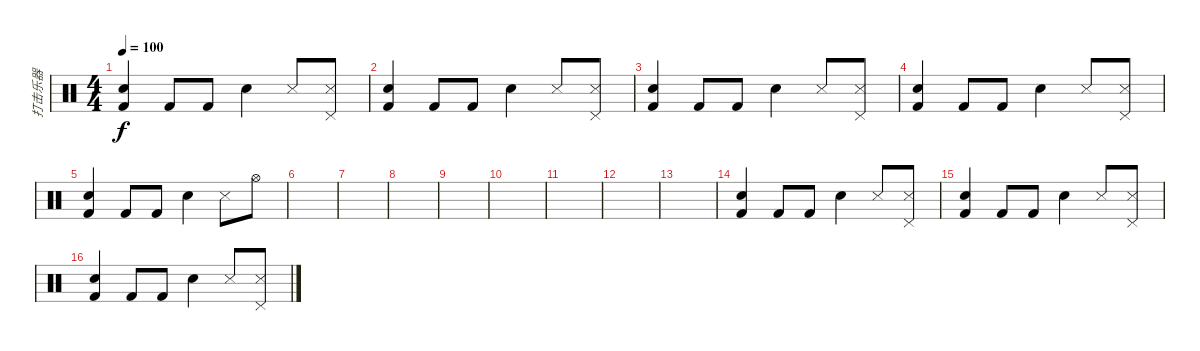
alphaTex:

\track ("打击乐器" "打击乐器") {instrument percussion}
\staff {score}
\articulation defaults
\ts (4 4)
\tempo 100
\clef neutral
\ks c
("Snare (hit) 2" "Kick (hit) 2").4{dy f} "Kick (hit) 2".8 "Kick (hit) 2".8 "Snare (hit) 2".4 "Snare (side stick) 3".8 ("Snare (side stick) 3" "Pedal Hi-Hat (hit)").8 |
("Snare (hit) 2" "Kick (hit) 2").4 "Kick (hit) 2".8 "Kick (hit) 2".8 "Snare (hit) 2".4 "Snare (side stick) 3".8 ("Snare (side stick) 3" "Pedal Hi-Hat (hit)").8 |
("Snare (hit) 2" "Kick (hit) 2").4 "Kick (hit) 2".8 "Kick (hit) 2".8 "Snare (hit) 2".4 "Snare (side stick) 3".8 ("Snare (side stick) 3" "Pedal Hi-Hat (hit)").8 |
("Snare (hit) 2" "Kick (hit) 2").4 "Kick (hit) 2".8 "Kick (hit) 2".8 "Snare (hit) 2".4 "Snare (side stick) 3".8 ("Snare (side stick) 3" "Pedal Hi-Hat (hit)").8 |
("Snare (hit) 2" "Kick (hit) 2").4 "Kick (hit) 2".8 "Kick (hit) 2".8 "Snare (hit) 2".4 "Snare (side stick) 3".8 "Hi-Hat (open)".8 |
|
|
|
|
|
|
|
|
("Snare (hit) 2" "Kick (hit) 2").4 "Kick (hit) 2".8 "Kick (hit) 2".8 "Snare (hit) 2".4 "Snare (side stick) 3".8 ("Snare (side stick) 3" "Pedal Hi-Hat (hit)").8 |
("Snare (hit) 2" "Kick (hit) 2").4 "Kick (hit) 2".8 "Kick (hit) 2".8 "Snare (hit) 2".4 "Snare (side stick) 3".8 ("Snare (side stick) 3" "Pedal Hi-Hat (hit)").8 |
("Snare (hit) 2" "Kick (hit) 2").4 "Kick (hit) 2".8 "Kick (hit) 2".8 "Snare (hit) 2".4 "Snare (side stick) 3".8 ("Snare (side stick) 3" "Pedal Hi-Hat (hit)").8
